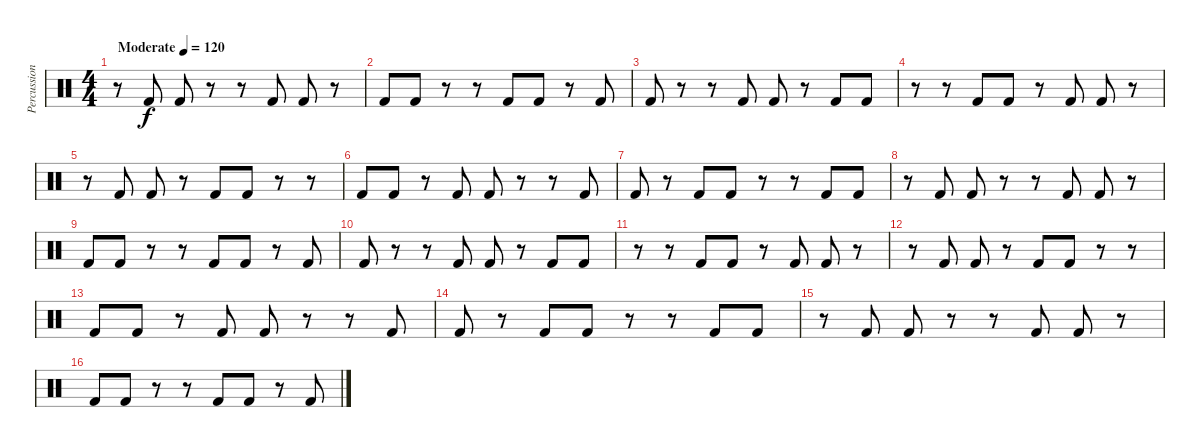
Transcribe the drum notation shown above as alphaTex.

\track ("Percussion" "Percussion") {instrument percussion}
\staff {score}
\articulation defaults
\ts (4 4)
\tempo (120 "Moderate")
\clef neutral
\ks c
r.8{dy f} "Kick (hit) 2".8 "Kick (hit) 2".8 r.8 r.8 "Kick (hit) 2".8 "Kick (hit) 2".8 r.8 |
"Kick (hit) 2".8 "Kick (hit) 2".8 r.8 r.8 "Kick (hit) 2".8 "Kick (hit) 2".8 r.8 "Kick (hit) 2".8 |
"Kick (hit) 2".8 r.8 r.8 "Kick (hit) 2".8 "Kick (hit) 2".8 r.8 "Kick (hit) 2".8 "Kick (hit) 2".8 |
r.8 r.8 "Kick (hit) 2".8 "Kick (hit) 2".8 r.8 "Kick (hit) 2".8 "Kick (hit) 2".8 r.8 |
r.8 "Kick (hit) 2".8 "Kick (hit) 2".8 r.8 "Kick (hit) 2".8 "Kick (hit) 2".8 r.8 r.8 |
"Kick (hit) 2".8 "Kick (hit) 2".8 r.8 "Kick (hit) 2".8 "Kick (hit) 2".8 r.8 r.8 "Kick (hit) 2".8 |
"Kick (hit) 2".8 r.8 "Kick (hit) 2".8 "Kick (hit) 2".8 r.8 r.8 "Kick (hit) 2".8 "Kick (hit) 2".8 |
r.8 "Kick (hit) 2".8 "Kick (hit) 2".8 r.8 r.8 "Kick (hit) 2".8 "Kick (hit) 2".8 r.8 |
"Kick (hit) 2".8 "Kick (hit) 2".8 r.8 r.8 "Kick (hit) 2".8 "Kick (hit) 2".8 r.8 "Kick (hit) 2".8 |
"Kick (hit) 2".8 r.8 r.8 "Kick (hit) 2".8 "Kick (hit) 2".8 r.8 "Kick (hit) 2".8 "Kick (hit) 2".8 |
r.8 r.8 "Kick (hit) 2".8 "Kick (hit) 2".8 r.8 "Kick (hit) 2".8 "Kick (hit) 2".8 r.8 |
r.8 "Kick (hit) 2".8 "Kick (hit) 2".8 r.8 "Kick (hit) 2".8 "Kick (hit) 2".8 r.8 r.8 |
"Kick (hit) 2".8 "Kick (hit) 2".8 r.8 "Kick (hit) 2".8 "Kick (hit) 2".8 r.8 r.8 "Kick (hit) 2".8 |
"Kick (hit) 2".8 r.8 "Kick (hit) 2".8 "Kick (hit) 2".8 r.8 r.8 "Kick (hit) 2".8 "Kick (hit) 2".8 |
r.8 "Kick (hit) 2".8 "Kick (hit) 2".8 r.8 r.8 "Kick (hit) 2".8 "Kick (hit) 2".8 r.8 |
"Kick (hit) 2".8 "Kick (hit) 2".8 r.8 r.8 "Kick (hit) 2".8 "Kick (hit) 2".8 r.8 "Kick (hit) 2".8
